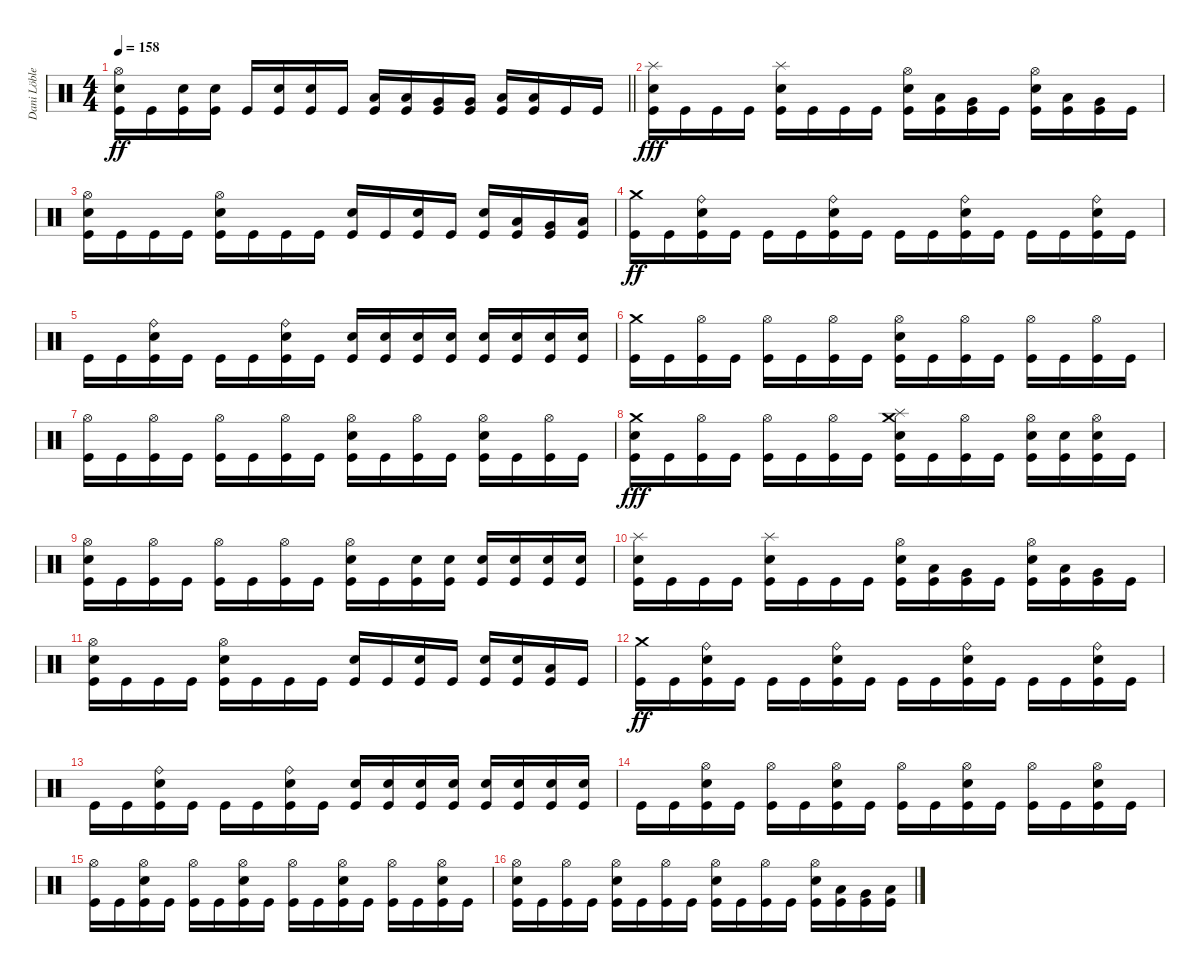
\track ("Dani Löble" "Dani Löble") {instrument percussion}
\staff {score}
\articulation defaults
\ts (4 4)
\tempo 158
\clef neutral
\barLineRight lightlight
\ks c
("Hi-Hat (open)" "Electric Snare (hit)" "Kick (hit)").16{dy ff} "Kick (hit)".16 ("Electric Snare (hit)" "Kick (hit)").16 ("Electric Snare (hit)" "Kick (hit)").16 "Kick (hit)".16 ("Electric Snare (hit)" "Kick (hit)").16 ("Electric Snare (hit)" "Kick (hit)").16 "Kick (hit)".16 ("Low Tom (hit)" "Kick (hit)").16 ("Low Tom (hit)" "Kick (hit)").16 ("Very Low Tom (hit)" "Kick (hit)").16 ("Very Low Tom (hit)" "Kick (hit)").16 ("Low Floor Tom (hit)" "Kick (hit)").16 ("Low Floor Tom (hit)" "Kick (hit)").16 "Kick (hit)".16 "Kick (hit)".16 |
\section ("" "")
("Splash (hit)" "Electric Snare (hit)" "Kick (hit)").16{dy fff} "Kick (hit)".16 "Kick (hit)".16 "Kick (hit)".16 ("Splash (hit)" "Electric Snare (hit)" "Kick (hit)").16 "Kick (hit)".16 "Kick (hit)".16 "Kick (hit)".16 ("Hi-Hat (open)" "Electric Snare (hit)" "Kick (hit)").16 ("Low Tom (hit)" "Kick (hit)").16 ("Very Low Tom (hit)" "Kick (hit)").16 "Kick (hit)".16 ("Hi-Hat (open)" "Electric Snare (hit)" "Kick (hit)").16 ("Low Tom (hit)" "Kick (hit)").16 ("Very Low Tom (hit)" "Kick (hit)").16 "Kick (hit)".16 |
("Hi-Hat (open)" "Electric Snare (hit)" "Kick (hit)").16 "Kick (hit)".16 "Kick (hit)".16 "Kick (hit)".16 ("Hi-Hat (open)" "Electric Snare (hit)" "Kick (hit)").16 "Kick (hit)".16 "Kick (hit)".16 "Kick (hit)".16 ("Electric Snare (hit)" "Kick (hit)").16 "Kick (hit)".16 ("Electric Snare (hit)" "Kick (hit)").16 "Kick (hit)".16 ("Electric Snare (hit)" "Kick (hit)").16 ("Low Tom (hit)" "Kick (hit)").16 ("Very Low Tom (hit)" "Kick (hit)").16 ("Low Floor Tom (hit)" "Kick (hit)").16 |
("Crash medium (hit)" "Kick (hit)").16{dy ff} "Kick (hit)".16 ("Ride (bell)" "Electric Snare (hit)" "Kick (hit)").16 "Kick (hit)".16 "Kick (hit)".16 "Kick (hit)".16 ("Ride (bell)" "Electric Snare (hit)" "Kick (hit)").16 "Kick (hit)".16 "Kick (hit)".16 "Kick (hit)".16 ("Ride (bell)" "Electric Snare (hit)" "Kick (hit)").16 "Kick (hit)".16 "Kick (hit)".16 "Kick (hit)".16 ("Ride (bell)" "Electric Snare (hit)" "Kick (hit)").16 "Kick (hit)".16 |
"Kick (hit)".16 "Kick (hit)".16 ("Ride (bell)" "Electric Snare (hit)" "Kick (hit)").16 "Kick (hit)".16 "Kick (hit)".16 "Kick (hit)".16 ("Ride (bell)" "Electric Snare (hit)" "Kick (hit)").16 "Kick (hit)".16 ("Electric Snare (hit)" "Kick (hit)").16 ("Electric Snare (hit)" "Kick (hit)").16 ("Electric Snare (hit)" "Kick (hit)").16 ("Electric Snare (hit)" "Kick (hit)").16 ("Electric Snare (hit)" "Kick (hit)").16 ("Electric Snare (hit)" "Kick (hit)").16 ("Electric Snare (hit)" "Kick (hit)").16 ("Electric Snare (hit)" "Kick (hit)").16 |
("Crash medium (hit)" "Kick (hit)").16 "Kick (hit)".16 ("Hi-Hat (open)" "Kick (hit)").16 "Kick (hit)".16 ("Hi-Hat (open)" "Kick (hit)").16 "Kick (hit)".16 ("Hi-Hat (open)" "Kick (hit)").16 "Kick (hit)".16 ("Hi-Hat (open)" "Electric Snare (hit)" "Kick (hit)").16 "Kick (hit)".16 ("Hi-Hat (open)" "Kick (hit)").16 "Kick (hit)".16 ("Hi-Hat (open)" "Kick (hit)").16 "Kick (hit)".16 ("Hi-Hat (open)" "Kick (hit)").16 "Kick (hit)".16 |
("Hi-Hat (open)" "Kick (hit)").16 "Kick (hit)".16 ("Hi-Hat (open)" "Kick (hit)").16 "Kick (hit)".16 ("Hi-Hat (open)" "Kick (hit)").16 "Kick (hit)".16 ("Hi-Hat (open)" "Kick (hit)").16 "Kick (hit)".16 ("Hi-Hat (open)" "Electric Snare (hit)" "Kick (hit)").16 "Kick (hit)".16 ("Hi-Hat (open)" "Kick (hit)").16 "Kick (hit)".16 ("Hi-Hat (open)" "Electric Snare (hit)" "Kick (hit)").16 "Kick (hit)".16 ("Hi-Hat (open)" "Kick (hit)").16 "Kick (hit)".16 |
("Crash medium (hit)" "Electric Snare (hit)" "Kick (hit)").16{dy fff} "Kick (hit)".16 ("Hi-Hat (open)" "Kick (hit)").16 "Kick (hit)".16 ("Hi-Hat (open)" "Kick (hit)").16 "Kick (hit)".16 ("Hi-Hat (open)" "Kick (hit)").16 "Kick (hit)".16 ("Splash (hit)" "Crash medium (hit)" "Electric Snare (hit)" "Kick (hit)").16 "Kick (hit)".16 ("Hi-Hat (open)" "Kick (hit)").16 "Kick (hit)".16 ("Hi-Hat (open)" "Electric Snare (hit)" "Kick (hit)").16 ("Electric Snare (hit)" "Kick (hit)").16 ("Hi-Hat (open)" "Electric Snare (hit)" "Kick (hit)").16 "Kick (hit)".16 |
("Hi-Hat (open)" "Electric Snare (hit)" "Kick (hit)").16 "Kick (hit)".16 ("Hi-Hat (open)" "Kick (hit)").16 "Kick (hit)".16 ("Hi-Hat (open)" "Kick (hit)").16 "Kick (hit)".16 ("Hi-Hat (open)" "Kick (hit)").16 "Kick (hit)".16 ("Hi-Hat (open)" "Electric Snare (hit)" "Kick (hit)").16 "Kick (hit)".16 ("Electric Snare (hit)" "Kick (hit)").16 ("Electric Snare (hit)" "Kick (hit)").16 ("Electric Snare (hit)" "Kick (hit)").16 ("Electric Snare (hit)" "Kick (hit)").16 ("Electric Snare (hit)" "Kick (hit)").16 ("Electric Snare (hit)" "Kick (hit)").16 |
("Splash (hit)" "Electric Snare (hit)" "Kick (hit)").16 "Kick (hit)".16 "Kick (hit)".16 "Kick (hit)".16 ("Splash (hit)" "Electric Snare (hit)" "Kick (hit)").16 "Kick (hit)".16 "Kick (hit)".16 "Kick (hit)".16 ("Hi-Hat (open)" "Electric Snare (hit)" "Kick (hit)").16 ("Low Tom (hit)" "Kick (hit)").16 ("Very Low Tom (hit)" "Kick (hit)").16 "Kick (hit)".16 ("Hi-Hat (open)" "Electric Snare (hit)" "Kick (hit)").16 ("Low Tom (hit)" "Kick (hit)").16 ("Very Low Tom (hit)" "Kick (hit)").16 "Kick (hit)".16 |
("Hi-Hat (open)" "Electric Snare (hit)" "Kick (hit)").16 "Kick (hit)".16 "Kick (hit)".16 "Kick (hit)".16 ("Hi-Hat (open)" "Electric Snare (hit)" "Kick (hit)").16 "Kick (hit)".16 "Kick (hit)".16 "Kick (hit)".16 ("Electric Snare (hit)" "Kick (hit)").16 "Kick (hit)".16 ("Electric Snare (hit)" "Kick (hit)").16 "Kick (hit)".16 ("Electric Snare (hit)" "Kick (hit)").16 ("Electric Snare (hit)" "Kick (hit)").16 ("Low Tom (hit)" "Kick (hit)").16 "Kick (hit)".16 |
("Crash medium (hit)" "Kick (hit)").16{dy ff} "Kick (hit)".16 ("Ride (bell)" "Electric Snare (hit)" "Kick (hit)").16 "Kick (hit)".16 "Kick (hit)".16 "Kick (hit)".16 ("Ride (bell)" "Electric Snare (hit)" "Kick (hit)").16 "Kick (hit)".16 "Kick (hit)".16 "Kick (hit)".16 ("Ride (bell)" "Electric Snare (hit)" "Kick (hit)").16 "Kick (hit)".16 "Kick (hit)".16 "Kick (hit)".16 ("Ride (bell)" "Electric Snare (hit)" "Kick (hit)").16 "Kick (hit)".16 |
"Kick (hit)".16 "Kick (hit)".16 ("Ride (bell)" "Electric Snare (hit)" "Kick (hit)").16 "Kick (hit)".16 "Kick (hit)".16 "Kick (hit)".16 ("Ride (bell)" "Electric Snare (hit)" "Kick (hit)").16 "Kick (hit)".16 ("Electric Snare (hit)" "Kick (hit)").16 ("Electric Snare (hit)" "Kick (hit)").16 ("Electric Snare (hit)" "Kick (hit)").16 ("Electric Snare (hit)" "Kick (hit)").16 ("Electric Snare (hit)" "Kick (hit)").16 ("Electric Snare (hit)" "Kick (hit)").16 ("Electric Snare (hit)" "Kick (hit)").16 ("Electric Snare (hit)" "Kick (hit)").16 |
"Kick (hit)".16 "Kick (hit)".16 ("Hi-Hat (open)" "Electric Snare (hit)" "Kick (hit)").16 "Kick (hit)".16 ("Hi-Hat (open)" "Kick (hit)").16 "Kick (hit)".16 ("Hi-Hat (open)" "Electric Snare (hit)" "Kick (hit)").16 "Kick (hit)".16 ("Hi-Hat (open)" "Kick (hit)").16 "Kick (hit)".16 ("Hi-Hat (open)" "Electric Snare (hit)" "Kick (hit)").16 "Kick (hit)".16 ("Hi-Hat (open)" "Kick (hit)").16 "Kick (hit)".16 ("Hi-Hat (open)" "Electric Snare (hit)" "Kick (hit)").16 "Kick (hit)".16 |
("Hi-Hat (open)" "Kick (hit)").16 "Kick (hit)".16 ("Hi-Hat (open)" "Electric Snare (hit)" "Kick (hit)").16 "Kick (hit)".16 ("Hi-Hat (open)" "Kick (hit)").16 "Kick (hit)".16 ("Hi-Hat (open)" "Electric Snare (hit)" "Kick (hit)").16 "Kick (hit)".16 ("Hi-Hat (open)" "Kick (hit)").16 "Kick (hit)".16 ("Hi-Hat (open)" "Electric Snare (hit)" "Kick (hit)").16 "Kick (hit)".16 ("Hi-Hat (open)" "Kick (hit)").16 "Kick (hit)".16 ("Hi-Hat (open)" "Electric Snare (hit)" "Kick (hit)").16 "Kick (hit)".16 |
("Hi-Hat (open)" "Electric Snare (hit)" "Kick (hit)").16 "Kick (hit)".16 ("Hi-Hat (open)" "Kick (hit)").16 "Kick (hit)".16 ("Hi-Hat (open)" "Electric Snare (hit)" "Kick (hit)").16 "Kick (hit)".16 ("Hi-Hat (open)" "Kick (hit)").16 "Kick (hit)".16 ("Hi-Hat (open)" "Electric Snare (hit)" "Kick (hit)").16 "Kick (hit)".16 ("Hi-Hat (open)" "Kick (hit)").16 "Kick (hit)".16 ("Hi-Hat (open)" "Electric Snare (hit)" "Kick (hit)").16 ("Low Tom (hit)" "Kick (hit)").16 ("Very Low Tom (hit)" "Kick (hit)").16 ("Low Floor Tom (hit)" "Kick (hit)").16
